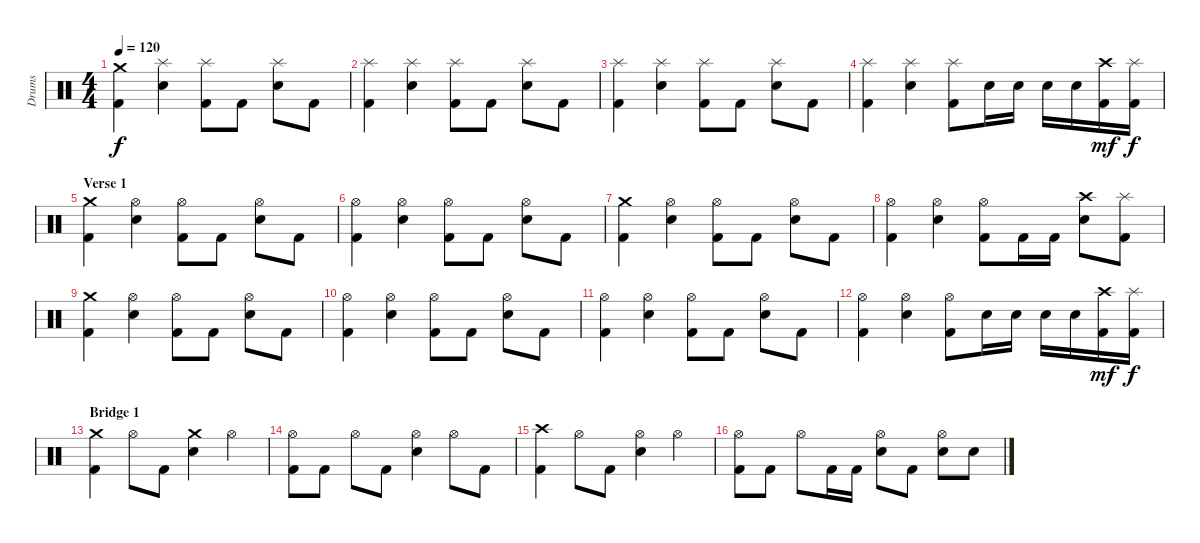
\track ("Drums" "Drums") {instrument percussion}
\staff {score}
\articulation defaults
\ts (4 4)
\tempo 120
\clef neutral
\ks c
("Crash medium (hit)" "Kick (hit) 2").4{dy f} ("Splash (hit)" "Snare (hit) 2").4 ("Splash (hit)" "Kick (hit) 2").8 "Kick (hit) 2".8 ("Splash (hit)" "Snare (hit) 2").8 "Kick (hit) 2".8 |
("Splash (hit)" "Kick (hit) 2").4 ("Splash (hit)" "Snare (hit) 2").4 ("Splash (hit)" "Kick (hit) 2").8 "Kick (hit) 2".8 ("Splash (hit)" "Snare (hit) 2").8 "Kick (hit) 2".8 |
("Splash (hit)" "Kick (hit) 2").4 ("Splash (hit)" "Snare (hit) 2").4 ("Splash (hit)" "Kick (hit) 2").8 "Kick (hit) 2".8 ("Splash (hit)" "Snare (hit) 2").8 "Kick (hit) 2".8 |
("Splash (hit)" "Kick (hit) 2").4 ("Splash (hit)" "Snare (hit) 2").4 ("Splash (hit)" "Kick (hit) 2").8 "Snare (hit) 2".16 "Snare (hit) 2".16 "Snare (hit) 2".16 "Snare (hit) 2".16 ("Crash high (hit)" "Kick (hit) 2").16{dy mf} ("Splash (hit)" "Kick (hit) 2").16{dy f} |
\section ("" "Verse 1")
("Crash medium (hit)" "Kick (hit) 2").4 ("Hi-Hat (open)" "Snare (hit) 2").4 ("Hi-Hat (open)" "Kick (hit) 2").8 "Kick (hit) 2".8 ("Hi-Hat (open)" "Snare (hit) 2").8 "Kick (hit) 2".8 |
("Hi-Hat (open)" "Kick (hit) 2").4 ("Hi-Hat (open)" "Snare (hit) 2").4 ("Hi-Hat (open)" "Kick (hit) 2").8 "Kick (hit) 2".8 ("Hi-Hat (open)" "Snare (hit) 2").8 "Kick (hit) 2".8 |
("Crash medium (hit)" "Kick (hit) 2").4 ("Hi-Hat (open)" "Snare (hit) 2").4 ("Hi-Hat (open)" "Kick (hit) 2").8 "Kick (hit) 2".8 ("Hi-Hat (open)" "Snare (hit) 2").8 "Kick (hit) 2".8 |
("Hi-Hat (open)" "Kick (hit) 2").4 ("Hi-Hat (open)" "Snare (hit) 2").4 ("Hi-Hat (open)" "Kick (hit) 2").8 "Kick (hit) 2".16 "Kick (hit) 2".16 ("Crash high (hit)" "Snare (hit) 2").8 ("Splash (hit)" "Kick (hit) 2").8 |
("Crash medium (hit)" "Kick (hit) 2").4 ("Hi-Hat (open)" "Snare (hit) 2").4 ("Hi-Hat (open)" "Kick (hit) 2").8 "Kick (hit) 2".8 ("Hi-Hat (open)" "Snare (hit) 2").8 "Kick (hit) 2".8 |
("Hi-Hat (open)" "Kick (hit) 2").4 ("Hi-Hat (open)" "Snare (hit) 2").4 ("Hi-Hat (open)" "Kick (hit) 2").8 "Kick (hit) 2".8 ("Hi-Hat (open)" "Snare (hit) 2").8 "Kick (hit) 2".8 |
("Hi-Hat (open)" "Kick (hit) 2").4 ("Hi-Hat (open)" "Snare (hit) 2").4 ("Hi-Hat (open)" "Kick (hit) 2").8 "Kick (hit) 2".8 ("Hi-Hat (open)" "Snare (hit) 2").8 "Kick (hit) 2".8 |
("Hi-Hat (open)" "Kick (hit) 2").4 ("Hi-Hat (open)" "Snare (hit) 2").4 ("Hi-Hat (open)" "Kick (hit) 2").8 "Snare (hit) 2".16 "Snare (hit) 2".16 "Snare (hit) 2".16 "Snare (hit) 2".16 ("Crash high (hit)" "Kick (hit) 2").16{dy mf} ("Splash (hit)" "Kick (hit) 2").16{dy f} |
\section ("" "Bridge 1")
("Crash medium (hit)" "Kick (hit) 2").4 "Hi-Hat (open)".8 "Kick (hit) 2".8 ("Crash medium (hit)" "Snare (hit) 2").4 "Hi-Hat (open)".4 |
("Hi-Hat (open)" "Kick (hit) 2").8 "Kick (hit) 2".8 "Hi-Hat (open)".8 "Kick (hit) 2".8 ("Hi-Hat (open)" "Snare (hit) 2").4 "Hi-Hat (open)".8 "Kick (hit) 2".8 |
("Crash high (hit)" "Kick (hit) 2").4 "Hi-Hat (open)".8 "Kick (hit) 2".8 ("Hi-Hat (open)" "Snare (hit) 2").4 "Hi-Hat (open)".4 |
("Hi-Hat (open)" "Kick (hit) 2").8 "Kick (hit) 2".8 "Hi-Hat (open)".8 "Kick (hit) 2".16 "Kick (hit) 2".16 ("Hi-Hat (open)" "Snare (hit) 2").8 "Kick (hit) 2".8 ("Hi-Hat (open)" "Snare (hit) 2").8 "Snare (hit) 2".8
